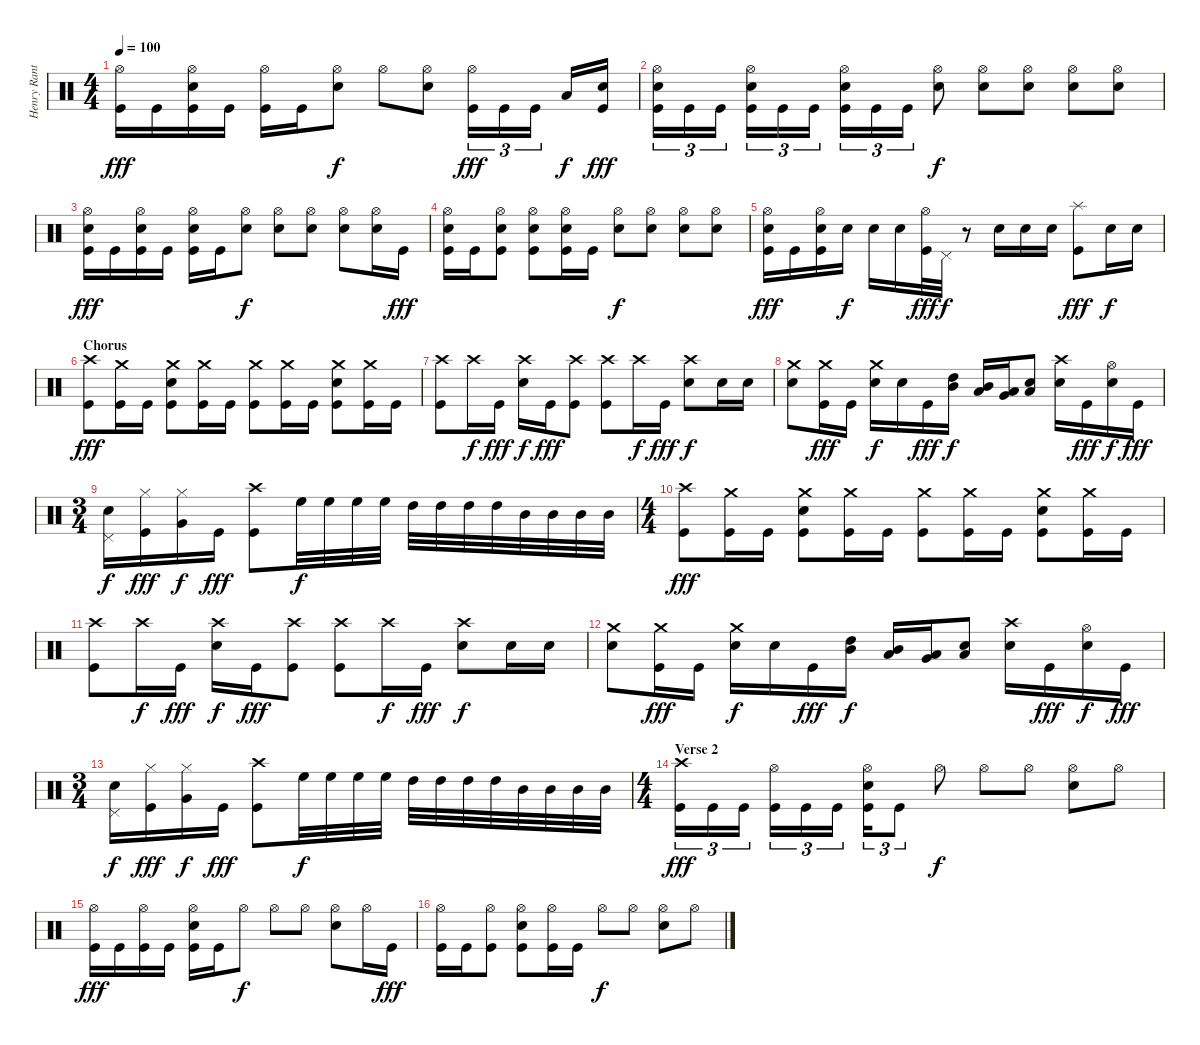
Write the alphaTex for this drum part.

\track ("Henry Ranta" "Henry Rant") {instrument percussion}
\staff {score}
\articulation defaults
\ts (4 4)
\tempo 100
\clef neutral
\ks c
("Hi-Hat (open)" "Kick (hit)").16{dy fff} "Kick (hit)".16 ("Hi-Hat (open)" "Electric Snare (hit)" "Kick (hit)").16 "Kick (hit)".16 ("Hi-Hat (open)" "Kick (hit)").16 "Kick (hit)".16 ("Hi-Hat (open)" "Electric Snare (hit)").8{dy f} "Hi-Hat (open)".8 ("Hi-Hat (open)" "Electric Snare (hit)").8 ("Hi-Hat (open)" "Kick (hit)").16{tu (3 2) dy fff} "Kick (hit)".16{tu (3 2)} "Kick (hit)".16{tu (3 2)} "Low Floor Tom (hit)".16{dy f} ("Electric Snare (hit)" "Kick (hit)").16{dy fff} |
("Hi-Hat (open)" "Electric Snare (hit)" "Kick (hit)").16{tu (3 2)} "Kick (hit)".16{tu (3 2)} "Kick (hit)".16{tu (3 2)} ("Hi-Hat (open)" "Electric Snare (hit)" "Kick (hit)").16{tu (3 2)} "Kick (hit)".16{tu (3 2)} "Kick (hit)".16{tu (3 2)} ("Hi-Hat (open)" "Electric Snare (hit)" "Kick (hit)").16{tu (3 2)} "Kick (hit)".16{tu (3 2)} "Kick (hit)".16{tu (3 2)} ("Hi-Hat (open)" "Electric Snare (hit)").8{dy f} ("Hi-Hat (open)" "Electric Snare (hit)").8 ("Hi-Hat (open)" "Electric Snare (hit)").8 ("Hi-Hat (open)" "Electric Snare (hit)").8 ("Hi-Hat (open)" "Electric Snare (hit)").8 |
("Hi-Hat (open)" "Electric Snare (hit)" "Kick (hit)").16{dy fff} "Kick (hit)".16 ("Hi-Hat (open)" "Electric Snare (hit)" "Kick (hit)").16 "Kick (hit)".16 ("Hi-Hat (open)" "Electric Snare (hit)" "Kick (hit)").16 "Kick (hit)".16 ("Hi-Hat (open)" "Electric Snare (hit)").8{dy f} ("Hi-Hat (open)" "Electric Snare (hit)").8 ("Hi-Hat (open)" "Electric Snare (hit)").8 ("Hi-Hat (open)" "Electric Snare (hit)").8 ("Hi-Hat (open)" "Electric Snare (hit)").16 "Kick (hit)".16{dy fff} |
("Hi-Hat (open)" "Electric Snare (hit)" "Kick (hit)").16 "Kick (hit)".16 ("Hi-Hat (open)" "Electric Snare (hit)" "Kick (hit)").8 ("Hi-Hat (open)" "Electric Snare (hit)" "Kick (hit)").8 ("Hi-Hat (open)" "Electric Snare (hit)" "Kick (hit)").16 "Kick (hit)".16 ("Hi-Hat (open)" "Electric Snare (hit)").8{dy f} ("Hi-Hat (open)" "Electric Snare (hit)").8 ("Hi-Hat (open)" "Electric Snare (hit)").8 ("Hi-Hat (open)" "Electric Snare (hit)").8 |
("Hi-Hat (open)" "Electric Snare (hit)" "Kick (hit)").16{dy fff} "Kick (hit)".16 ("Hi-Hat (open)" "Electric Snare (hit)" "Kick (hit)").16 "Electric Snare (hit)".16{dy f} "Electric Snare (hit)".16 "Electric Snare (hit)".16 ("Hi-Hat (open)" "Kick (hit)").32{dy fff} "Pedal Hi-Hat (hit)".32{dy f} r.8 "Electric Snare (hit)".16 "Electric Snare (hit)".16 "Electric Snare (hit)".16 ("Splash (hit)" "Kick (hit)").8{dy fff} "Electric Snare (hit)".16{dy f} "Electric Snare (hit)".16 |
\section ("" "Chorus")
("Crash high (hit)" "Kick (hit)").8{dy fff} ("Crash medium (hit)" "Kick (hit)").16 "Kick (hit)".16 ("Crash medium (hit)" "Electric Snare (hit)" "Kick (hit)").8 ("Crash medium (hit)" "Kick (hit)").16 "Kick (hit)".16 ("Crash medium (hit)" "Kick (hit)").8 ("Crash medium (hit)" "Kick (hit)").16 "Kick (hit)".16 ("Crash medium (hit)" "Electric Snare (hit)" "Kick (hit)").8 ("Crash medium (hit)" "Kick (hit)").16 "Kick (hit)".16 |
("Crash high (hit)" "Kick (hit)").8 "Crash high (hit)".16{dy f} "Kick (hit)".16{dy fff} ("Crash high (hit)" "Electric Snare (hit)").16{dy f} "Kick (hit)".16{dy fff} ("Crash high (hit)" "Kick (hit)").8 ("Crash high (hit)" "Kick (hit)").8 "Crash high (hit)".16{dy f} "Kick (hit)".16{dy fff} ("Crash high (hit)" "Electric Snare (hit)").8{dy f} "Electric Snare (hit)".16 "Electric Snare (hit)".16 |
("Crash medium (hit)" "Electric Snare (hit)").8 ("Crash medium (hit)" "Kick (hit)").16{dy fff} "Kick (hit)".16 ("Crash medium (hit)" "Electric Snare (hit)").16{dy f} "Electric Snare (hit)".16 "Kick (hit)".16{dy fff} ("Mid Tom (hit)" "High Tom (hit)").16{dy f} ("Mid Tom (hit)" "Low Tom (hit)").16 ("Very Low Tom (hit)" "Low Tom (hit)").16 ("Low Floor Tom (hit)" "Electric Snare (hit)").8 ("Crash high (hit)" "Electric Snare (hit)").16 "Kick (hit)".16{dy fff} ("Hi-Hat (open)" "Electric Snare (hit)").16{dy f} "Kick (hit)".16{dy fff} |
\ts (3 4)
("Pedal Hi-Hat (hit)" "Electric Snare (hit)").16{dy f} ("Hi-Hat (closed)" "Kick (hit)").16{dy fff} ("Hi-Hat (closed)" "Very Low Tom (hit)").16{dy f} "Kick (hit)".16{dy fff} ("Crash high (hit)" "Kick (hit)").8 "High Floor Tom (hit)".32{dy f} "High Floor Tom (hit)".32 "High Floor Tom (hit)".32 "High Floor Tom (hit)".32 "High Tom (hit)".32 "High Tom (hit)".32 "High Tom (hit)".32 "High Tom (hit)".32 "Mid Tom (hit)".32 "Mid Tom (hit)".32 "Mid Tom (hit)".32 "Mid Tom (hit)".32 |
\ts (4 4)
("Crash high (hit)" "Kick (hit)").8{dy fff} ("Crash medium (hit)" "Kick (hit)").16 "Kick (hit)".16 ("Crash medium (hit)" "Electric Snare (hit)" "Kick (hit)").8 ("Crash medium (hit)" "Kick (hit)").16 "Kick (hit)".16 ("Crash medium (hit)" "Kick (hit)").8 ("Crash medium (hit)" "Kick (hit)").16 "Kick (hit)".16 ("Crash medium (hit)" "Electric Snare (hit)" "Kick (hit)").8 ("Crash medium (hit)" "Kick (hit)").16 "Kick (hit)".16 |
("Crash high (hit)" "Kick (hit)").8 "Crash high (hit)".16{dy f} "Kick (hit)".16{dy fff} ("Crash high (hit)" "Electric Snare (hit)").16{dy f} "Kick (hit)".16{dy fff} ("Crash high (hit)" "Kick (hit)").8 ("Crash high (hit)" "Kick (hit)").8 "Crash high (hit)".16{dy f} "Kick (hit)".16{dy fff} ("Crash high (hit)" "Electric Snare (hit)").8{dy f} "Electric Snare (hit)".16 "Electric Snare (hit)".16 |
("Crash medium (hit)" "Electric Snare (hit)").8 ("Crash medium (hit)" "Kick (hit)").16{dy fff} "Kick (hit)".16 ("Crash medium (hit)" "Electric Snare (hit)").16{dy f} "Electric Snare (hit)".16 "Kick (hit)".16{dy fff} ("Mid Tom (hit)" "High Tom (hit)").16{dy f} ("Mid Tom (hit)" "Low Tom (hit)").16 ("Very Low Tom (hit)" "Low Tom (hit)").16 ("Low Floor Tom (hit)" "Electric Snare (hit)").8 ("Crash high (hit)" "Electric Snare (hit)").16 "Kick (hit)".16{dy fff} ("Hi-Hat (open)" "Electric Snare (hit)").16{dy f} "Kick (hit)".16{dy fff} |
\ts (3 4)
("Pedal Hi-Hat (hit)" "Electric Snare (hit)").16{dy f} ("Hi-Hat (closed)" "Kick (hit)").16{dy fff} ("Hi-Hat (closed)" "Very Low Tom (hit)").16{dy f} "Kick (hit)".16{dy fff} ("Crash high (hit)" "Kick (hit)").8 "High Floor Tom (hit)".32{dy f} "High Floor Tom (hit)".32 "High Floor Tom (hit)".32 "High Floor Tom (hit)".32 "High Tom (hit)".32 "High Tom (hit)".32 "High Tom (hit)".32 "High Tom (hit)".32 "Mid Tom (hit)".32 "Mid Tom (hit)".32 "Mid Tom (hit)".32 "Mid Tom (hit)".32 |
\ts (4 4)
\section ("" "Verse 2")
("Crash high (hit)" "Kick (hit)").16{tu (3 2) dy fff} "Kick (hit)".16{tu (3 2)} "Kick (hit)".16{tu (3 2)} ("Hi-Hat (open)" "Kick (hit)").16{tu (3 2)} "Kick (hit)".16{tu (3 2)} "Kick (hit)".16{tu (3 2)} ("Hi-Hat (open)" "Electric Snare (hit)" "Kick (hit)").16{tu (3 2)} "Kick (hit)".8{tu (3 2)} "Hi-Hat (open)".8{dy f} "Hi-Hat (open)".8 "Hi-Hat (open)".8 ("Hi-Hat (open)" "Electric Snare (hit)").8 "Hi-Hat (open)".8 |
("Hi-Hat (open)" "Kick (hit)").16{dy fff} "Kick (hit)".16 ("Hi-Hat (open)" "Kick (hit)").16 "Kick (hit)".16 ("Hi-Hat (open)" "Electric Snare (hit)" "Kick (hit)").16 "Kick (hit)".16 "Hi-Hat (open)".8{dy f} "Hi-Hat (open)".8 "Hi-Hat (open)".8 ("Hi-Hat (open)" "Electric Snare (hit)").8 "Hi-Hat (open)".16 "Kick (hit)".16{dy fff} |
("Hi-Hat (open)" "Kick (hit)").16 "Kick (hit)".16 ("Hi-Hat (open)" "Kick (hit)").8 ("Hi-Hat (open)" "Electric Snare (hit)" "Kick (hit)").8 ("Hi-Hat (open)" "Kick (hit)").16 "Kick (hit)".16 "Hi-Hat (open)".8{dy f} "Hi-Hat (open)".8 ("Hi-Hat (open)" "Electric Snare (hit)").8 "Hi-Hat (open)".8
